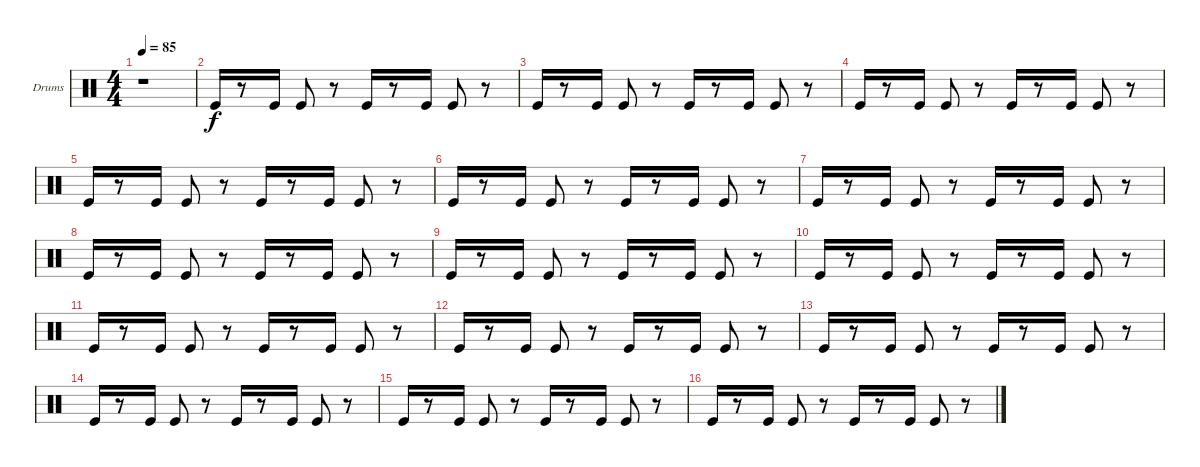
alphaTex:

\bracketExtendMode groupsimilarinstruments
\firstSystemTrackNameOrientation horizontal
\otherSystemsTrackNameOrientation horizontal
\track ("Drumkit" "Drums") {instrument percussion}
\staff {score}
\articulation defaults
\ts (4 4)
\tempo 85
\clef neutral
\ks c
r.1{dy f} |
"Kick (hit)".16 r.8 "Kick (hit)".16 "Kick (hit)".8 r.8 "Kick (hit)".16 r.8 "Kick (hit)".16 "Kick (hit)".8 r.8 |
"Kick (hit)".16 r.8 "Kick (hit)".16 "Kick (hit)".8 r.8 "Kick (hit)".16 r.8 "Kick (hit)".16 "Kick (hit)".8 r.8 |
"Kick (hit)".16 r.8 "Kick (hit)".16 "Kick (hit)".8 r.8 "Kick (hit)".16 r.8 "Kick (hit)".16 "Kick (hit)".8 r.8 |
"Kick (hit)".16 r.8 "Kick (hit)".16 "Kick (hit)".8 r.8 "Kick (hit)".16 r.8 "Kick (hit)".16 "Kick (hit)".8 r.8 |
"Kick (hit)".16 r.8 "Kick (hit)".16 "Kick (hit)".8 r.8 "Kick (hit)".16 r.8 "Kick (hit)".16 "Kick (hit)".8 r.8 |
"Kick (hit)".16 r.8 "Kick (hit)".16 "Kick (hit)".8 r.8 "Kick (hit)".16 r.8 "Kick (hit)".16 "Kick (hit)".8 r.8 |
"Kick (hit)".16 r.8 "Kick (hit)".16 "Kick (hit)".8 r.8 "Kick (hit)".16 r.8 "Kick (hit)".16 "Kick (hit)".8 r.8 |
"Kick (hit)".16 r.8 "Kick (hit)".16 "Kick (hit)".8 r.8 "Kick (hit)".16 r.8 "Kick (hit)".16 "Kick (hit)".8 r.8 |
"Kick (hit)".16 r.8 "Kick (hit)".16 "Kick (hit)".8 r.8 "Kick (hit)".16 r.8 "Kick (hit)".16 "Kick (hit)".8 r.8 |
"Kick (hit)".16 r.8 "Kick (hit)".16 "Kick (hit)".8 r.8 "Kick (hit)".16 r.8 "Kick (hit)".16 "Kick (hit)".8 r.8 |
"Kick (hit)".16 r.8 "Kick (hit)".16 "Kick (hit)".8 r.8 "Kick (hit)".16 r.8 "Kick (hit)".16 "Kick (hit)".8 r.8 |
"Kick (hit)".16 r.8 "Kick (hit)".16 "Kick (hit)".8 r.8 "Kick (hit)".16 r.8 "Kick (hit)".16 "Kick (hit)".8 r.8 |
"Kick (hit)".16 r.8 "Kick (hit)".16 "Kick (hit)".8 r.8 "Kick (hit)".16 r.8 "Kick (hit)".16 "Kick (hit)".8 r.8 |
"Kick (hit)".16 r.8 "Kick (hit)".16 "Kick (hit)".8 r.8 "Kick (hit)".16 r.8 "Kick (hit)".16 "Kick (hit)".8 r.8 |
"Kick (hit)".16 r.8 "Kick (hit)".16 "Kick (hit)".8 r.8 "Kick (hit)".16 r.8 "Kick (hit)".16 "Kick (hit)".8 r.8
